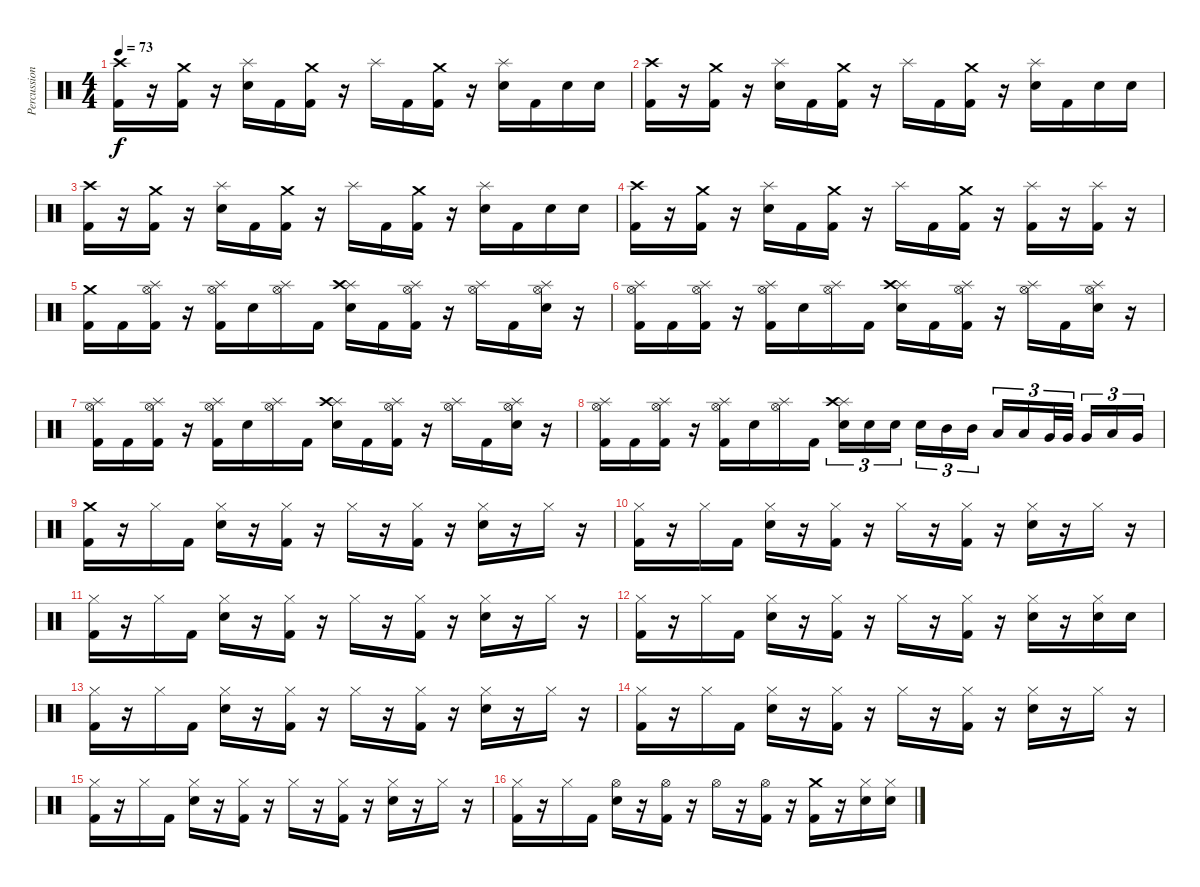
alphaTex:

\track ("Percussion" "Percussion") {instrument percussion}
\staff {score}
\articulation defaults
\ts (4 4)
\tempo 73
\clef neutral
\ks c
("Crash high (hit)" "Kick (hit) 2").16{dy f} r.16 ("Crash medium (hit)" "Kick (hit) 2").16 r.16 ("Splash (hit)" "Electric Snare (hit)").16 "Kick (hit) 2".16 ("Crash medium (hit)" "Kick (hit) 2").16 r.16 "Splash (hit)".16 "Kick (hit) 2".16 ("Crash medium (hit)" "Kick (hit) 2").16 r.16 ("Splash (hit)" "Electric Snare (hit)").16 "Kick (hit) 2".16 "Electric Snare (hit)".16 "Electric Snare (hit)".16 |
("Crash high (hit)" "Kick (hit) 2").16 r.16 ("Crash medium (hit)" "Kick (hit) 2").16 r.16 ("Splash (hit)" "Electric Snare (hit)").16 "Kick (hit) 2".16 ("Crash medium (hit)" "Kick (hit) 2").16 r.16 "Splash (hit)".16 "Kick (hit) 2".16 ("Crash medium (hit)" "Kick (hit) 2").16 r.16 ("Splash (hit)" "Electric Snare (hit)").16 "Kick (hit) 2".16 "Electric Snare (hit)".16 "Electric Snare (hit)".16 |
("Crash high (hit)" "Kick (hit) 2").16 r.16 ("Crash medium (hit)" "Kick (hit) 2").16 r.16 ("Splash (hit)" "Electric Snare (hit)").16 "Kick (hit) 2".16 ("Crash medium (hit)" "Kick (hit) 2").16 r.16 "Splash (hit)".16 "Kick (hit) 2".16 ("Crash medium (hit)" "Kick (hit) 2").16 r.16 ("Splash (hit)" "Electric Snare (hit)").16 "Kick (hit) 2".16 "Electric Snare (hit)".16 "Electric Snare (hit)".16 |
("Crash high (hit)" "Kick (hit) 2").16 r.16 ("Crash medium (hit)" "Kick (hit) 2").16 r.16 ("Splash (hit)" "Electric Snare (hit)").16 "Kick (hit) 2".16 ("Crash medium (hit)" "Kick (hit) 2").16 r.16 "Splash (hit)".16 "Kick (hit) 2".16 ("Crash medium (hit)" "Kick (hit) 2").16 r.16 ("Splash (hit)" "Kick (hit) 2").16 r.16 ("Splash (hit)" "Kick (hit) 2").16 r.16 |
("Crash medium (hit)" "Kick (hit) 2").16 "Kick (hit) 2".16 ("Splash (hit)" "Hi-Hat (open)" "Kick (hit) 2").16 r.16 ("Splash (hit)" "Hi-Hat (open)" "Kick (hit) 2").16 "Electric Snare (hit)".16 ("Splash (hit)" "Hi-Hat (open)").16 "Kick (hit) 2".16 ("Splash (hit)" "Crash high (hit)" "Electric Snare (hit)").16 "Kick (hit) 2".16 ("Splash (hit)" "Hi-Hat (open)" "Kick (hit) 2").16 r.16 ("Splash (hit)" "Hi-Hat (open)").16 "Kick (hit) 2".16 ("Splash (hit)" "Hi-Hat (open)" "Electric Snare (hit)").16 r.16 |
("Splash (hit)" "Hi-Hat (open)" "Kick (hit) 2").16 "Kick (hit) 2".16 ("Splash (hit)" "Hi-Hat (open)" "Kick (hit) 2").16 r.16 ("Splash (hit)" "Hi-Hat (open)" "Kick (hit) 2").16 "Electric Snare (hit)".16 ("Splash (hit)" "Hi-Hat (open)").16 "Kick (hit) 2".16 ("Splash (hit)" "Crash high (hit)" "Electric Snare (hit)").16 "Kick (hit) 2".16 ("Splash (hit)" "Hi-Hat (open)" "Kick (hit) 2").16 r.16 ("Splash (hit)" "Hi-Hat (open)").16 "Kick (hit) 2".16 ("Splash (hit)" "Hi-Hat (open)" "Electric Snare (hit)").16 r.16 |
("Splash (hit)" "Hi-Hat (open)" "Kick (hit) 2").16 "Kick (hit) 2".16 ("Splash (hit)" "Hi-Hat (open)" "Kick (hit) 2").16 r.16 ("Splash (hit)" "Hi-Hat (open)" "Kick (hit) 2").16 "Electric Snare (hit)".16 ("Splash (hit)" "Hi-Hat (open)").16 "Kick (hit) 2".16 ("Splash (hit)" "Crash high (hit)" "Electric Snare (hit)").16 "Kick (hit) 2".16 ("Splash (hit)" "Hi-Hat (open)" "Kick (hit) 2").16 r.16 ("Splash (hit)" "Hi-Hat (open)").16 "Kick (hit) 2".16 ("Splash (hit)" "Hi-Hat (open)" "Electric Snare (hit)").16 r.16 |
("Splash (hit)" "Hi-Hat (open)" "Kick (hit) 2").16 "Kick (hit) 2".16 ("Splash (hit)" "Hi-Hat (open)" "Kick (hit) 2").16 r.16 ("Splash (hit)" "Hi-Hat (open)" "Kick (hit) 2").16 "Electric Snare (hit)".16 ("Splash (hit)" "Hi-Hat (open)").16 "Kick (hit) 2".16 ("Splash (hit)" "Crash high (hit)" "Electric Snare (hit)").16{tu (3 2)} "Electric Snare (hit)".16{tu (3 2)} "Electric Snare (hit)".16{tu (3 2)} "Electric Snare (hit)".16{tu (3 2)} "Mid Tom (hit)".16{tu (3 2)} "Mid Tom (hit)".16{tu (3 2)} "Low Tom (hit)".16{tu (3 2)} "Low Floor Tom (hit)".16{tu (3 2)} "Very Low Tom (hit)".32{tu (3 2)} "Very Low Tom (hit)".32{tu (3 2)} "Very Low Tom (hit)".16{tu (3 2)} "Low Floor Tom (hit)".16{tu (3 2)} "Very Low Tom (hit)".16{tu (3 2)} |
("Crash medium (hit)" "Kick (hit) 2").16 r.16 "Hi-Hat (closed)".16 "Kick (hit) 2".16 ("Hi-Hat (closed)" "Electric Snare (hit)").16 r.16 ("Hi-Hat (closed)" "Kick (hit) 2").16 r.16 "Hi-Hat (closed)".16 r.16 ("Hi-Hat (closed)" "Kick (hit) 2").16 r.16 ("Hi-Hat (closed)" "Electric Snare (hit)").16 r.16 "Hi-Hat (closed)".16 r.16 |
("Hi-Hat (closed)" "Kick (hit) 2").16 r.16 "Hi-Hat (closed)".16 "Kick (hit) 2".16 ("Hi-Hat (closed)" "Electric Snare (hit)").16 r.16 ("Hi-Hat (closed)" "Kick (hit) 2").16 r.16 "Hi-Hat (closed)".16 r.16 ("Hi-Hat (closed)" "Kick (hit) 2").16 r.16 ("Hi-Hat (closed)" "Electric Snare (hit)").16 r.16 "Hi-Hat (closed)".16 r.16 |
("Hi-Hat (closed)" "Kick (hit) 2").16 r.16 "Hi-Hat (closed)".16 "Kick (hit) 2".16 ("Hi-Hat (closed)" "Electric Snare (hit)").16 r.16 ("Hi-Hat (closed)" "Kick (hit) 2").16 r.16 "Hi-Hat (closed)".16 r.16 ("Hi-Hat (closed)" "Kick (hit) 2").16 r.16 ("Hi-Hat (closed)" "Electric Snare (hit)").16 r.16 "Hi-Hat (closed)".16 r.16 |
("Hi-Hat (closed)" "Kick (hit) 2").16 r.16 "Hi-Hat (closed)".16 "Kick (hit) 2".16 ("Hi-Hat (closed)" "Electric Snare (hit)").16 r.16 ("Hi-Hat (closed)" "Kick (hit) 2").16 r.16 "Hi-Hat (closed)".16 r.16 ("Hi-Hat (closed)" "Kick (hit) 2").16 r.16 ("Hi-Hat (closed)" "Electric Snare (hit)").16 r.16 ("Hi-Hat (closed)" "Electric Snare (hit)").16 "Electric Snare (hit)".16 |
("Hi-Hat (closed)" "Kick (hit) 2").16 r.16 "Hi-Hat (closed)".16 "Kick (hit) 2".16 ("Hi-Hat (closed)" "Electric Snare (hit)").16 r.16 ("Hi-Hat (closed)" "Kick (hit) 2").16 r.16 "Hi-Hat (closed)".16 r.16 ("Hi-Hat (closed)" "Kick (hit) 2").16 r.16 ("Hi-Hat (closed)" "Electric Snare (hit)").16 r.16 "Hi-Hat (closed)".16 r.16 |
("Hi-Hat (closed)" "Kick (hit) 2").16 r.16 "Hi-Hat (closed)".16 "Kick (hit) 2".16 ("Hi-Hat (closed)" "Electric Snare (hit)").16 r.16 ("Hi-Hat (closed)" "Kick (hit) 2").16 r.16 "Hi-Hat (closed)".16 r.16 ("Hi-Hat (closed)" "Kick (hit) 2").16 r.16 ("Hi-Hat (closed)" "Electric Snare (hit)").16 r.16 "Hi-Hat (closed)".16 r.16 |
("Hi-Hat (closed)" "Kick (hit) 2").16 r.16 "Hi-Hat (closed)".16 "Kick (hit) 2".16 ("Hi-Hat (closed)" "Electric Snare (hit)").16 r.16 ("Hi-Hat (closed)" "Kick (hit) 2").16 r.16 "Hi-Hat (closed)".16 r.16 ("Hi-Hat (closed)" "Kick (hit) 2").16 r.16 ("Hi-Hat (closed)" "Electric Snare (hit)").16 r.16 "Hi-Hat (closed)".16 r.16 |
("Hi-Hat (closed)" "Kick (hit) 2").16 r.16 "Hi-Hat (closed)".16 "Kick (hit) 2".16 ("Hi-Hat (open)" "Electric Snare (hit)").16 r.16 ("Hi-Hat (open)" "Kick (hit) 2").16 r.16 "Hi-Hat (open)".16 r.16 ("Hi-Hat (open)" "Kick (hit) 2").16 r.16 ("Crash medium (hit)" "Kick (hit) 2").16 r.16 ("Hi-Hat (closed)" "Electric Snare (hit)").16 ("Hi-Hat (closed)" "Electric Snare (hit)").16
